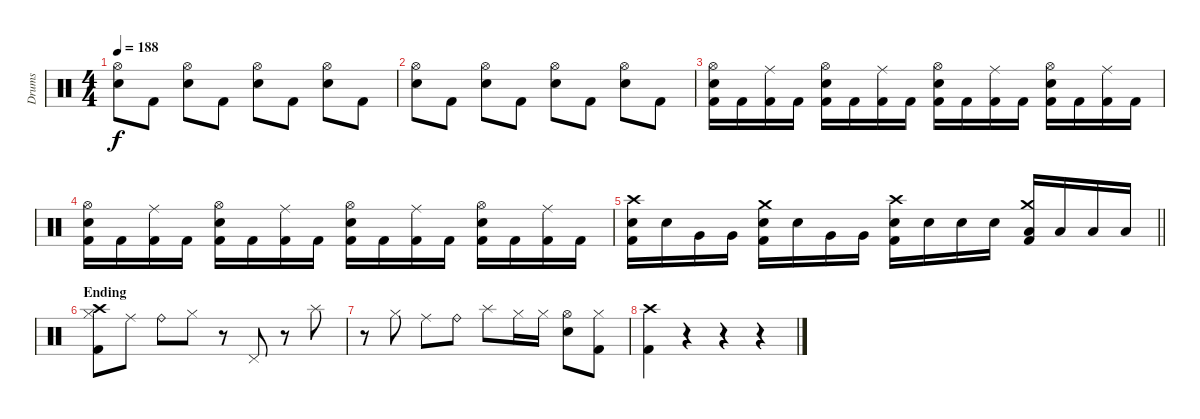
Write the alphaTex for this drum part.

\track ("Drums" "Drums") {instrument percussion}
\staff {score}
\articulation defaults
\ts (4 4)
\tempo 188
\clef neutral
\ks c
("Hi-Hat (open)" "Snare (hit) 2").8{dy f} "Kick (hit) 2".8 ("Hi-Hat (open)" "Snare (hit) 2").8 "Kick (hit) 2".8 ("Hi-Hat (open)" "Snare (hit) 2").8 "Kick (hit) 2".8 ("Hi-Hat (open)" "Snare (hit) 2").8 "Kick (hit) 2".8 |
("Hi-Hat (open)" "Snare (hit) 2").8 "Kick (hit) 2".8 ("Hi-Hat (open)" "Snare (hit) 2").8 "Kick (hit) 2".8 ("Hi-Hat (open)" "Snare (hit) 2").8 "Kick (hit) 2".8 ("Hi-Hat (open)" "Snare (hit) 2").8 "Kick (hit) 2".8 |
("Hi-Hat (open)" "Snare (hit) 2" "Kick (hit) 2").16 "Kick (hit) 2".16 ("Ride (middle)" "Kick (hit) 2").16 "Kick (hit) 2".16 ("Hi-Hat (open)" "Snare (hit) 2" "Kick (hit) 2").16 "Kick (hit) 2".16 ("Ride (middle)" "Kick (hit) 2").16 "Kick (hit) 2".16 ("Hi-Hat (open)" "Snare (hit) 2" "Kick (hit) 2").16 "Kick (hit) 2".16 ("Ride (middle)" "Kick (hit) 2").16 "Kick (hit) 2".16 ("Hi-Hat (open)" "Snare (hit) 2" "Kick (hit) 2").16 "Kick (hit) 2".16 ("Ride (middle)" "Kick (hit) 2").16 "Kick (hit) 2".16 |
("Hi-Hat (open)" "Snare (hit) 2" "Kick (hit) 2").16 "Kick (hit) 2".16 ("Ride (middle)" "Kick (hit) 2").16 "Kick (hit) 2".16 ("Hi-Hat (open)" "Snare (hit) 2" "Kick (hit) 2").16 "Kick (hit) 2".16 ("Ride (middle)" "Kick (hit) 2").16 "Kick (hit) 2".16 ("Hi-Hat (open)" "Snare (hit) 2" "Kick (hit) 2").16 "Kick (hit) 2".16 ("Ride (middle)" "Kick (hit) 2").16 "Kick (hit) 2".16 ("Hi-Hat (open)" "Snare (hit) 2" "Kick (hit) 2").16 "Kick (hit) 2".16 ("Ride (middle)" "Kick (hit) 2").16 "Kick (hit) 2".16 |
\barLineRight lightlight
("Crash high (hit)" "Snare (hit) 2" "Kick (hit) 2").16 "Snare (hit) 2".16 "Very Low Tom (hit)".16 "Very Low Tom (hit)".16 ("Crash medium (hit)" "Snare (hit) 2" "Kick (hit) 2").16 "Snare (hit) 2".16 "Very Low Tom (hit)".16 "Very Low Tom (hit)".16 ("Crash high (hit)" "Snare (hit) 2" "Kick (hit) 2").16 "Snare (hit) 2".16 "Snare (hit) 2".16 "Snare (hit) 2".16 ("Crash medium (hit)" "Low Tom (hit)" "Kick (hit) 2").16 "Low Tom (hit)".16 "Low Floor Tom (hit)".16 "Low Floor Tom (hit)".16 |
\section ("" "Ending")
("Crash high (hit)" "Hi-Hat (closed)" "Kick (hit) 2").8 "Ride (middle)".8 "Ride (bell)".8 "Hi-Hat (closed)".8 r.8 "Pedal Hi-Hat (hit)".8 r.8 "Splash (hit)".8 |
r.8 "Hi-Hat (closed)".8 "Ride (middle)".8 "Ride (bell)".8 "Splash (hit)".8 "Hi-Hat (closed)".16 "Hi-Hat (closed)".16 ("Hi-Hat (open)" "Snare (hit) 2").8 ("Hi-Hat (closed)" "Kick (hit) 2").8 |
("Crash high (hit)" "Kick (hit) 2").4 r.4 r.4 r.4
